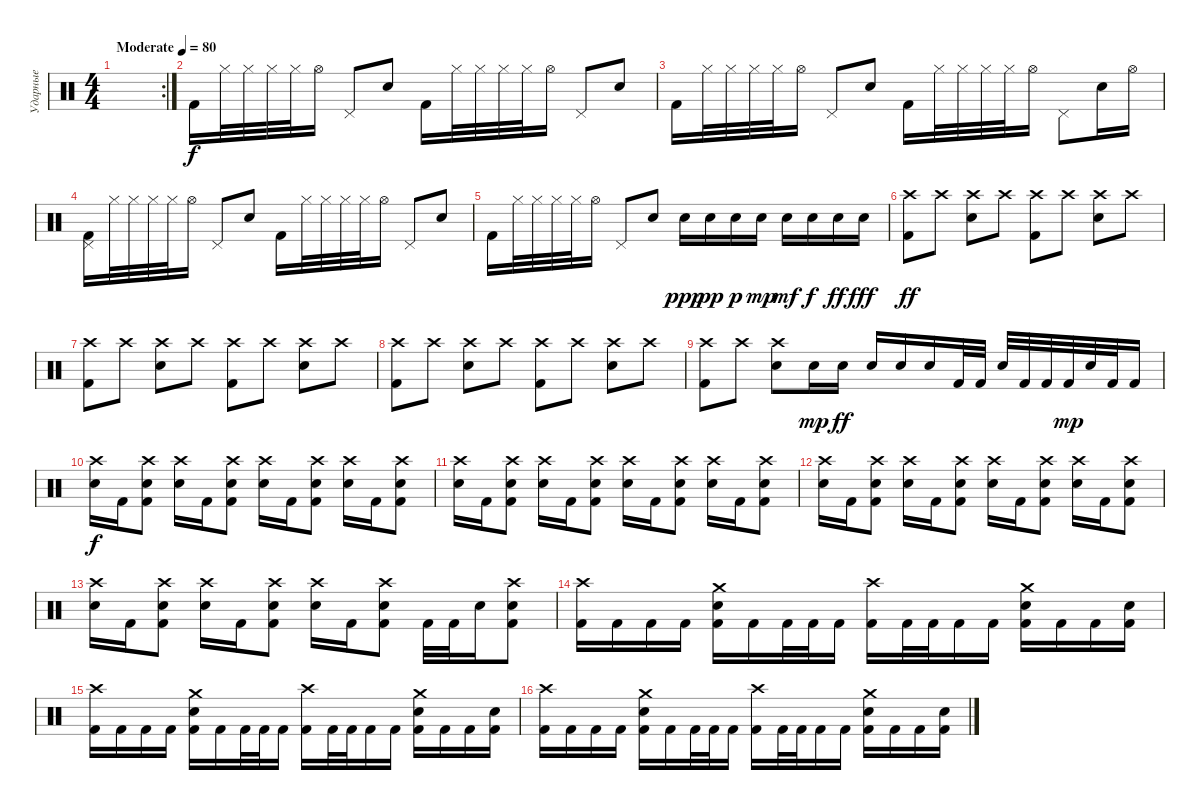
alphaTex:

\track ("Ударные" "Ударные") {instrument percussion}
\staff {score}
\articulation defaults
\rc 2
\ts (4 4)
\tempo (80 "Moderate")
\clef neutral
\ks c
|
"Kick (hit) 2".16 "Hi-Hat (closed)".32 "Hi-Hat (closed)".32 "Hi-Hat (closed)".32 "Hi-Hat (closed)".32 "Hi-Hat (open)".16 "Pedal Hi-Hat (hit)".8 "Electric Snare (hit)".8 "Kick (hit) 2".16 "Hi-Hat (closed)".32 "Hi-Hat (closed)".32 "Hi-Hat (closed)".32 "Hi-Hat (closed)".32 "Hi-Hat (open)".16 "Pedal Hi-Hat (hit)".8 "Electric Snare (hit)".8 |
"Kick (hit) 2".16 "Hi-Hat (closed)".32 "Hi-Hat (closed)".32 "Hi-Hat (closed)".32 "Hi-Hat (closed)".32 "Hi-Hat (open)".16 "Pedal Hi-Hat (hit)".8 "Electric Snare (hit)".8 "Kick (hit) 2".16 "Hi-Hat (closed)".32 "Hi-Hat (closed)".32 "Hi-Hat (closed)".32 "Hi-Hat (closed)".32 "Hi-Hat (open)".16 "Pedal Hi-Hat (hit)".8 "Electric Snare (hit)".16 "Hi-Hat (open)".16 |
("Kick (hit) 2" "Pedal Hi-Hat (hit)").16 "Hi-Hat (closed)".32 "Hi-Hat (closed)".32 "Hi-Hat (closed)".32 "Hi-Hat (closed)".32 "Hi-Hat (open)".16 "Pedal Hi-Hat (hit)".8 "Electric Snare (hit)".8 "Kick (hit) 2".16 "Hi-Hat (closed)".32 "Hi-Hat (closed)".32 "Hi-Hat (closed)".32 "Hi-Hat (closed)".32 "Hi-Hat (open)".16 "Pedal Hi-Hat (hit)".8 "Electric Snare (hit)".8 |
"Kick (hit) 2".16 "Hi-Hat (closed)".32 "Hi-Hat (closed)".32 "Hi-Hat (closed)".32 "Hi-Hat (closed)".32 "Hi-Hat (open)".16 "Pedal Hi-Hat (hit)".8 "Electric Snare (hit)".8 "Snare (hit) 2".16{dy ppp} "Snare (hit) 2".16{dy pp} "Snare (hit) 2".16{dy p} "Snare (hit) 2".16{dy mp} "Snare (hit) 2".16{dy mf} "Snare (hit) 2".16{dy f} "Snare (hit) 2".16{dy ff} "Snare (hit) 2".16{dy fff} |
("Crash high (hit)" "Kick (hit) 2").8{dy ff} "Crash high (hit)".8 ("Crash high (hit)" "Electric Snare (hit)").8 "Crash high (hit)".8 ("Crash high (hit)" "Kick (hit) 2").8 "Crash high (hit)".8 ("Crash high (hit)" "Electric Snare (hit)").8 "Crash high (hit)".8 |
("Crash high (hit)" "Kick (hit) 2").8 "Crash high (hit)".8 ("Crash high (hit)" "Electric Snare (hit)").8 "Crash high (hit)".8 ("Crash high (hit)" "Kick (hit) 2").8 "Crash high (hit)".8 ("Crash high (hit)" "Electric Snare (hit)").8 "Crash high (hit)".8 |
("Crash high (hit)" "Kick (hit) 2").8 "Crash high (hit)".8 ("Crash high (hit)" "Electric Snare (hit)").8 "Crash high (hit)".8 ("Crash high (hit)" "Kick (hit) 2").8 "Crash high (hit)".8 ("Crash high (hit)" "Electric Snare (hit)").8 "Crash high (hit)".8 |
("Crash high (hit)" "Kick (hit) 2").8 "Crash high (hit)".8 ("Crash high (hit)" "Electric Snare (hit)").8 "Electric Snare (hit)".16{dy mp} "Electric Snare (hit)".16{dy ff} "Electric Snare (hit)".16 "Electric Snare (hit)".16 "Electric Snare (hit)".16 "Kick (hit) 2".32 "Kick (hit) 2".32 "Electric Snare (hit)".32 "Kick (hit) 2".32 "Kick (hit) 2".32 "Kick (hit) 2".32{dy mp} "Electric Snare (hit)".32 "Kick (hit) 2".32 "Kick (hit) 2".16 |
("Crash high (hit)" "Electric Snare (hit)").16{dy f} "Kick (hit) 2".16 ("Kick (hit) 2" "Crash high (hit)" "Electric Snare (hit)").8 ("Crash high (hit)" "Electric Snare (hit)").16 "Kick (hit) 2".16 ("Kick (hit) 2" "Crash high (hit)" "Electric Snare (hit)").8 ("Crash high (hit)" "Electric Snare (hit)").16 "Kick (hit) 2".16 ("Kick (hit) 2" "Crash high (hit)" "Electric Snare (hit)").8 ("Crash high (hit)" "Electric Snare (hit)").16 "Kick (hit) 2".16 ("Kick (hit) 2" "Crash high (hit)" "Electric Snare (hit)").8 |
("Crash high (hit)" "Electric Snare (hit)").16 "Kick (hit) 2".16 ("Kick (hit) 2" "Crash high (hit)" "Electric Snare (hit)").8 ("Crash high (hit)" "Electric Snare (hit)").16 "Kick (hit) 2".16 ("Kick (hit) 2" "Crash high (hit)" "Electric Snare (hit)").8 ("Crash high (hit)" "Electric Snare (hit)").16 "Kick (hit) 2".16 ("Kick (hit) 2" "Crash high (hit)" "Electric Snare (hit)").8 ("Crash high (hit)" "Electric Snare (hit)").16 "Kick (hit) 2".16 ("Kick (hit) 2" "Crash high (hit)" "Electric Snare (hit)").8 |
("Crash high (hit)" "Electric Snare (hit)").16 "Kick (hit) 2".16 ("Kick (hit) 2" "Crash high (hit)" "Electric Snare (hit)").8 ("Crash high (hit)" "Electric Snare (hit)").16 "Kick (hit) 2".16 ("Kick (hit) 2" "Crash high (hit)" "Electric Snare (hit)").8 ("Crash high (hit)" "Electric Snare (hit)").16 "Kick (hit) 2".16 ("Kick (hit) 2" "Crash high (hit)" "Electric Snare (hit)").8 ("Crash high (hit)" "Electric Snare (hit)").16 "Kick (hit) 2".16 ("Kick (hit) 2" "Crash high (hit)" "Electric Snare (hit)").8 |
("Crash high (hit)" "Electric Snare (hit)").16 "Kick (hit) 2".16 ("Kick (hit) 2" "Crash high (hit)" "Electric Snare (hit)").8 ("Crash high (hit)" "Electric Snare (hit)").16 "Kick (hit) 2".16 ("Kick (hit) 2" "Crash high (hit)" "Electric Snare (hit)").8 ("Crash high (hit)" "Electric Snare (hit)").16 "Kick (hit) 2".16 ("Kick (hit) 2" "Crash high (hit)" "Electric Snare (hit)").8 "Kick (hit) 2".32 "Kick (hit) 2".32 "Electric Snare (hit)".16 ("Kick (hit) 2" "Crash high (hit)" "Electric Snare (hit)").8 |
("Kick (hit) 2" "Crash high (hit)").16 "Kick (hit) 2".16 "Kick (hit) 2".16 "Kick (hit) 2".16 ("Kick (hit) 2" "Crash medium (hit)" "Electric Snare (hit)").16 "Kick (hit) 2".16 "Kick (hit) 2".32 "Kick (hit) 2".32 "Kick (hit) 2".16 ("Kick (hit) 2" "Crash high (hit)").16 "Kick (hit) 2".32 "Kick (hit) 2".32 "Kick (hit) 2".16 "Kick (hit) 2".16 ("Kick (hit) 2" "Crash medium (hit)" "Electric Snare (hit)").16 "Kick (hit) 2".16 "Kick (hit) 2".16 ("Kick (hit) 2" "Electric Snare (hit)").16 |
("Kick (hit) 2" "Crash high (hit)").16 "Kick (hit) 2".16 "Kick (hit) 2".16 "Kick (hit) 2".16 ("Kick (hit) 2" "Crash medium (hit)" "Electric Snare (hit)").16 "Kick (hit) 2".16 "Kick (hit) 2".32 "Kick (hit) 2".32 "Kick (hit) 2".16 ("Kick (hit) 2" "Crash high (hit)").16 "Kick (hit) 2".32 "Kick (hit) 2".32 "Kick (hit) 2".16 "Kick (hit) 2".16 ("Kick (hit) 2" "Crash medium (hit)" "Electric Snare (hit)").16 "Kick (hit) 2".16 "Kick (hit) 2".16 ("Kick (hit) 2" "Electric Snare (hit)").16 |
("Kick (hit) 2" "Crash high (hit)").16 "Kick (hit) 2".16 "Kick (hit) 2".16 "Kick (hit) 2".16 ("Kick (hit) 2" "Crash medium (hit)" "Electric Snare (hit)").16 "Kick (hit) 2".16 "Kick (hit) 2".32 "Kick (hit) 2".32 "Kick (hit) 2".16 ("Kick (hit) 2" "Crash high (hit)").16 "Kick (hit) 2".32 "Kick (hit) 2".32 "Kick (hit) 2".16 "Kick (hit) 2".16 ("Kick (hit) 2" "Crash medium (hit)" "Electric Snare (hit)").16 "Kick (hit) 2".16 "Kick (hit) 2".16 ("Kick (hit) 2" "Electric Snare (hit)").16
